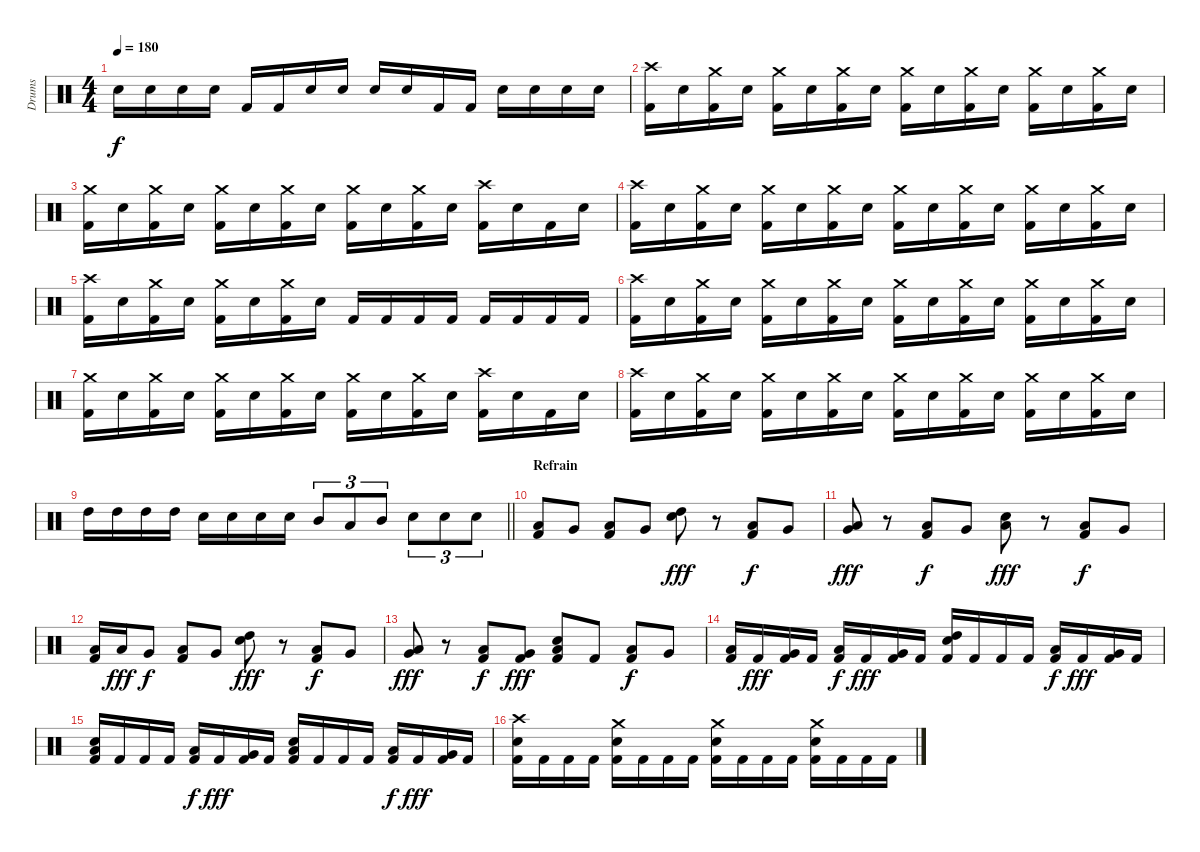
\track ("Drums" "Drums") {instrument percussion}
\staff {score}
\articulation defaults
\ts (4 4)
\tempo 180
\clef neutral
\ks c "Electric Snare (hit)".16{dy f} "Electric Snare (hit)".16 "Electric Snare (hit)".16 "Electric Snare (hit)".16 "Kick (hit) 2".16 "Kick (hit) 2".16 "Electric Snare (hit)".16 "Electric Snare (hit)".16 "Electric Snare (hit)".16 "Electric Snare (hit)".16 "Kick (hit) 2".16 "Kick (hit) 2".16 "Electric Snare (hit)".16 "Electric Snare (hit)".16 "Electric Snare (hit)".16 "Electric Snare (hit)".16
|
("Crash high (hit)" "Kick (hit) 2").16 "Electric Snare (hit)".16 ("Crash medium (hit)" "Kick (hit) 2").16 "Electric Snare (hit)".16 ("Crash medium (hit)" "Kick (hit) 2").16 "Electric Snare (hit)".16 ("Crash medium (hit)" "Kick (hit) 2").16 "Electric Snare (hit)".16 ("Crash medium (hit)" "Kick (hit) 2").16 "Electric Snare (hit)".16 ("Crash medium (hit)" "Kick (hit) 2").16 "Electric Snare (hit)".16 ("Crash medium (hit)" "Kick (hit) 2").16 "Electric Snare (hit)".16 ("Crash medium (hit)" "Kick (hit) 2").16 "Electric Snare (hit)".16 |
("Crash medium (hit)" "Kick (hit) 2").16 "Electric Snare (hit)".16 ("Crash medium (hit)" "Kick (hit) 2").16 "Electric Snare (hit)".16 ("Crash medium (hit)" "Kick (hit) 2").16 "Electric Snare (hit)".16 ("Crash medium (hit)" "Kick (hit) 2").16 "Electric Snare (hit)".16 ("Crash medium (hit)" "Kick (hit) 2").16 "Electric Snare (hit)".16 ("Crash medium (hit)" "Kick (hit) 2").16 "Electric Snare (hit)".16 ("Crash high (hit)" "Kick (hit) 2").16 "Electric Snare (hit)".16 "Kick (hit) 2".16 "Electric Snare (hit)".16 |
("Crash high (hit)" "Kick (hit) 2").16 "Electric Snare (hit)".16 ("Crash medium (hit)" "Kick (hit) 2").16 "Electric Snare (hit)".16 ("Crash medium (hit)" "Kick (hit) 2").16 "Electric Snare (hit)".16 ("Crash medium (hit)" "Kick (hit) 2").16 "Electric Snare (hit)".16 ("Crash medium (hit)" "Kick (hit) 2").16 "Electric Snare (hit)".16 ("Crash medium (hit)" "Kick (hit) 2").16 "Electric Snare (hit)".16 ("Crash medium (hit)" "Kick (hit) 2").16 "Electric Snare (hit)".16 ("Crash medium (hit)" "Kick (hit) 2").16 "Electric Snare (hit)".16 |
("Crash high (hit)" "Kick (hit) 2").16 "Electric Snare (hit)".16 ("Crash medium (hit)" "Kick (hit) 2").16 "Electric Snare (hit)".16 ("Crash medium (hit)" "Kick (hit) 2").16 "Electric Snare (hit)".16 ("Crash medium (hit)" "Kick (hit) 2").16 "Electric Snare (hit)".16 "Kick (hit) 2".16 "Kick (hit) 2".16 "Kick (hit) 2".16 "Kick (hit) 2".16 "Kick (hit) 2".16 "Kick (hit) 2".16 "Kick (hit) 2".16 "Kick (hit) 2".16 |
("Crash high (hit)" "Kick (hit) 2").16 "Electric Snare (hit)".16 ("Crash medium (hit)" "Kick (hit) 2").16 "Electric Snare (hit)".16 ("Crash medium (hit)" "Kick (hit) 2").16 "Electric Snare (hit)".16 ("Crash medium (hit)" "Kick (hit) 2").16 "Electric Snare (hit)".16 ("Crash medium (hit)" "Kick (hit) 2").16 "Electric Snare (hit)".16 ("Crash medium (hit)" "Kick (hit) 2").16 "Electric Snare (hit)".16 ("Crash medium (hit)" "Kick (hit) 2").16 "Electric Snare (hit)".16 ("Crash medium (hit)" "Kick (hit) 2").16 "Electric Snare (hit)".16 |
("Crash medium (hit)" "Kick (hit) 2").16 "Electric Snare (hit)".16 ("Crash medium (hit)" "Kick (hit) 2").16 "Electric Snare (hit)".16 ("Crash medium (hit)" "Kick (hit) 2").16 "Electric Snare (hit)".16 ("Crash medium (hit)" "Kick (hit) 2").16 "Electric Snare (hit)".16 ("Crash medium (hit)" "Kick (hit) 2").16 "Electric Snare (hit)".16 ("Crash medium (hit)" "Kick (hit) 2").16 "Electric Snare (hit)".16 ("Crash high (hit)" "Kick (hit) 2").16 "Electric Snare (hit)".16 "Kick (hit) 2".16 "Electric Snare (hit)".16 |
("Crash high (hit)" "Kick (hit) 2").16 "Electric Snare (hit)".16 ("Crash medium (hit)" "Kick (hit) 2").16 "Electric Snare (hit)".16 ("Crash medium (hit)" "Kick (hit) 2").16 "Electric Snare (hit)".16 ("Crash medium (hit)" "Kick (hit) 2").16 "Electric Snare (hit)".16 ("Crash medium (hit)" "Kick (hit) 2").16 "Electric Snare (hit)".16 ("Crash medium (hit)" "Kick (hit) 2").16 "Electric Snare (hit)".16 ("Crash medium (hit)" "Kick (hit) 2").16 "Electric Snare (hit)".16 ("Crash medium (hit)" "Kick (hit) 2").16 "Electric Snare (hit)".16 |
\barLineRight lightlight "High Tom (hit)".16 "High Tom (hit)".16 "High Tom (hit)".16 "High Tom (hit)".16 "Electric Snare (hit)".16 "Electric Snare (hit)".16 "Electric Snare (hit)".16 "Electric Snare (hit)".16 "Mid Tom (hit)".8{tu (3 2)} "Low Tom (hit)".8{tu (3 2)} "Mid Tom (hit)".8{tu (3 2)} "Electric Snare (hit)".8{tu (3 2)} "Electric Snare (hit)".8{tu (3 2)} "Electric Snare (hit)".8{tu (3 2)}
|
\section ("" "Refrain")
("Low Tom (hit)" "Kick (hit) 2").8 "Very Low Tom (hit)".8 ("Low Tom (hit)" "Kick (hit) 2").8 "Very Low Tom (hit)".8 ("High Tom (hit)" "Electric Snare (hit)").8{dy fff} r.8 ("Low Tom (hit)" "Kick (hit) 2").8{dy f} "Very Low Tom (hit)".8 |
("Low Tom (hit)" "Very Low Tom (hit)").8{dy fff} r.8 ("Low Tom (hit)" "Kick (hit) 2").8{dy f} "Very Low Tom (hit)".8 ("Low Tom (hit)" "Electric Snare (hit)").8{dy fff} r.8 ("Low Tom (hit)" "Kick (hit) 2").8{dy f} "Very Low Tom (hit)".8 |
("Low Tom (hit)" "Kick (hit) 2").16 "Low Tom (hit)".16{dy fff} "Very Low Tom (hit)".8{dy f} ("Low Tom (hit)" "Kick (hit) 2").8 "Very Low Tom (hit)".8 ("High Tom (hit)" "Electric Snare (hit)").8{dy fff} r.8 ("Low Tom (hit)" "Kick (hit) 2").8{dy f} "Very Low Tom (hit)".8 |
("Low Tom (hit)" "Very Low Tom (hit)").8{dy fff} r.8 ("Low Tom (hit)" "Kick (hit) 2").8{dy f} ("Very Low Tom (hit)" "Kick (hit) 2").8{dy fff} ("Low Tom (hit)" "Electric Snare (hit)" "Kick (hit) 2").8 "Kick (hit) 2".8 ("Low Tom (hit)" "Kick (hit) 2").8{dy f} "Very Low Tom (hit)".8 |
("Low Tom (hit)" "Kick (hit) 2").16 "Kick (hit) 2".16{dy fff} ("Very Low Tom (hit)" "Kick (hit) 2").16 "Kick (hit) 2".16 ("Low Tom (hit)" "Kick (hit) 2").16{dy f} "Kick (hit) 2".16{dy fff} ("Very Low Tom (hit)" "Kick (hit) 2").16 "Kick (hit) 2".16 ("High Tom (hit)" "Electric Snare (hit)" "Kick (hit) 2").16 "Kick (hit) 2".16 "Kick (hit) 2".16 "Kick (hit) 2".16 ("Low Tom (hit)" "Kick (hit) 2").16{dy f} "Kick (hit) 2".16{dy fff} ("Very Low Tom (hit)" "Kick (hit) 2").16 "Kick (hit) 2".16 |
("Low Tom (hit)" "Electric Snare (hit)" "Kick (hit) 2").16 "Kick (hit) 2".16 "Kick (hit) 2".16 "Kick (hit) 2".16 ("Low Tom (hit)" "Kick (hit) 2").16{dy f} "Kick (hit) 2".16{dy fff} ("Very Low Tom (hit)" "Kick (hit) 2").16 "Kick (hit) 2".16 ("Low Tom (hit)" "Electric Snare (hit)" "Kick (hit) 2").16 "Kick (hit) 2".16 "Kick (hit) 2".16 "Kick (hit) 2".16 ("Low Tom (hit)" "Kick (hit) 2").16{dy f} "Kick (hit) 2".16{dy fff} ("Very Low Tom (hit)" "Kick (hit) 2").16 "Kick (hit) 2".16 |
("Crash high (hit)" "Electric Snare (hit)" "Kick (hit) 2").16 "Kick (hit) 2".16 "Kick (hit) 2".16 "Kick (hit) 2".16 ("Crash medium (hit)" "Electric Snare (hit)" "Kick (hit) 2").16 "Kick (hit) 2".16 "Kick (hit) 2".16 "Kick (hit) 2".16 ("Crash medium (hit)" "Electric Snare (hit)" "Kick (hit) 2").16 "Kick (hit) 2".16 "Kick (hit) 2".16 "Kick (hit) 2".16 ("Crash medium (hit)" "Electric Snare (hit)" "Kick (hit) 2").16 "Kick (hit) 2".16 "Kick (hit) 2".16 "Kick (hit) 2".16
